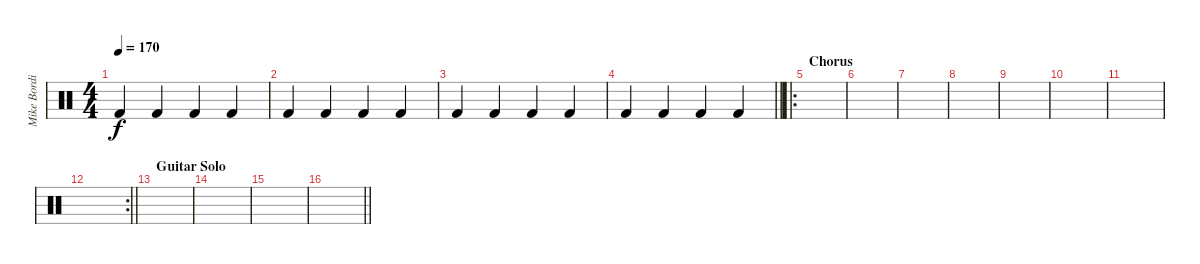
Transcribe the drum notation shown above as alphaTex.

\track ("Mike Bordin Backing" "Mike Bordi") {instrument percussion}
\staff {score}
\articulation defaults
\ts (4 4)
\tempo 170
\clef neutral
\ks c "Kick (hit) 2".4{dy f} "Kick (hit) 2".4 "Kick (hit) 2".4 "Kick (hit) 2".4
|
"Kick (hit) 2".4 "Kick (hit) 2".4 "Kick (hit) 2".4 "Kick (hit) 2".4 |
"Kick (hit) 2".4 "Kick (hit) 2".4 "Kick (hit) 2".4 "Kick (hit) 2".4 |
\barLineRight lightlight "Kick (hit) 2".4 "Kick (hit) 2".4 "Kick (hit) 2".4 "Kick (hit) 2".4
|
\ro
\section ("" "Chorus")
|
|
|
|
|
|
|
\rc 2
\barLineRight lightlight
|
\section ("" "Guitar Solo")
|
|
|
\barLineRight lightlight
